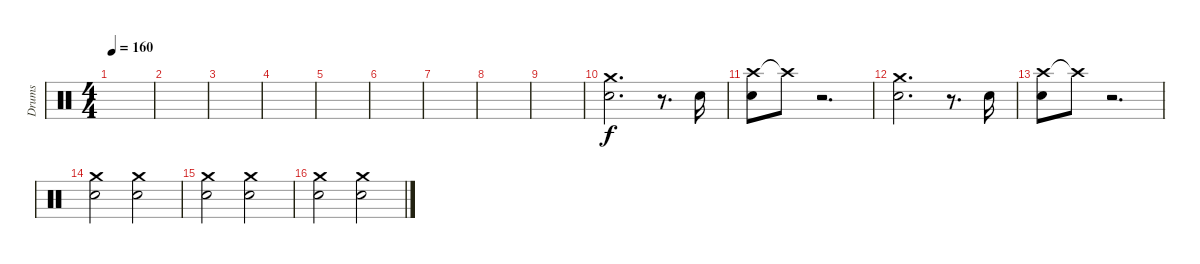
\track ("Drums" "Drums") {instrument percussion}
\staff {score}
\articulation defaults
\ts (4 4)
\tempo 160
\clef neutral
\ks c
|
|
|
|
|
|
|
|
|
("Crash medium (hit)" "Snare (hit) 2").2{d} r.8{d} "Snare (hit) 2".16 |
("Crash high (hit)" "Snare (hit) 2").8 "Crash high (hit)"{t}.8 r.2{d} |
("Crash medium (hit)" "Snare (hit) 2").2{d} r.8{d} "Snare (hit) 2".16 |
("Crash high (hit)" "Snare (hit) 2").8 "Crash high (hit)"{t}.8 r.2{d} |
("Crash medium (hit)" "Snare (hit) 2").2 ("Crash medium (hit)" "Snare (hit) 2").2 |
("Crash medium (hit)" "Snare (hit) 2").2 ("Crash medium (hit)" "Snare (hit) 2").2 |
("Crash medium (hit)" "Snare (hit) 2").2 ("Crash medium (hit)" "Snare (hit) 2").2
